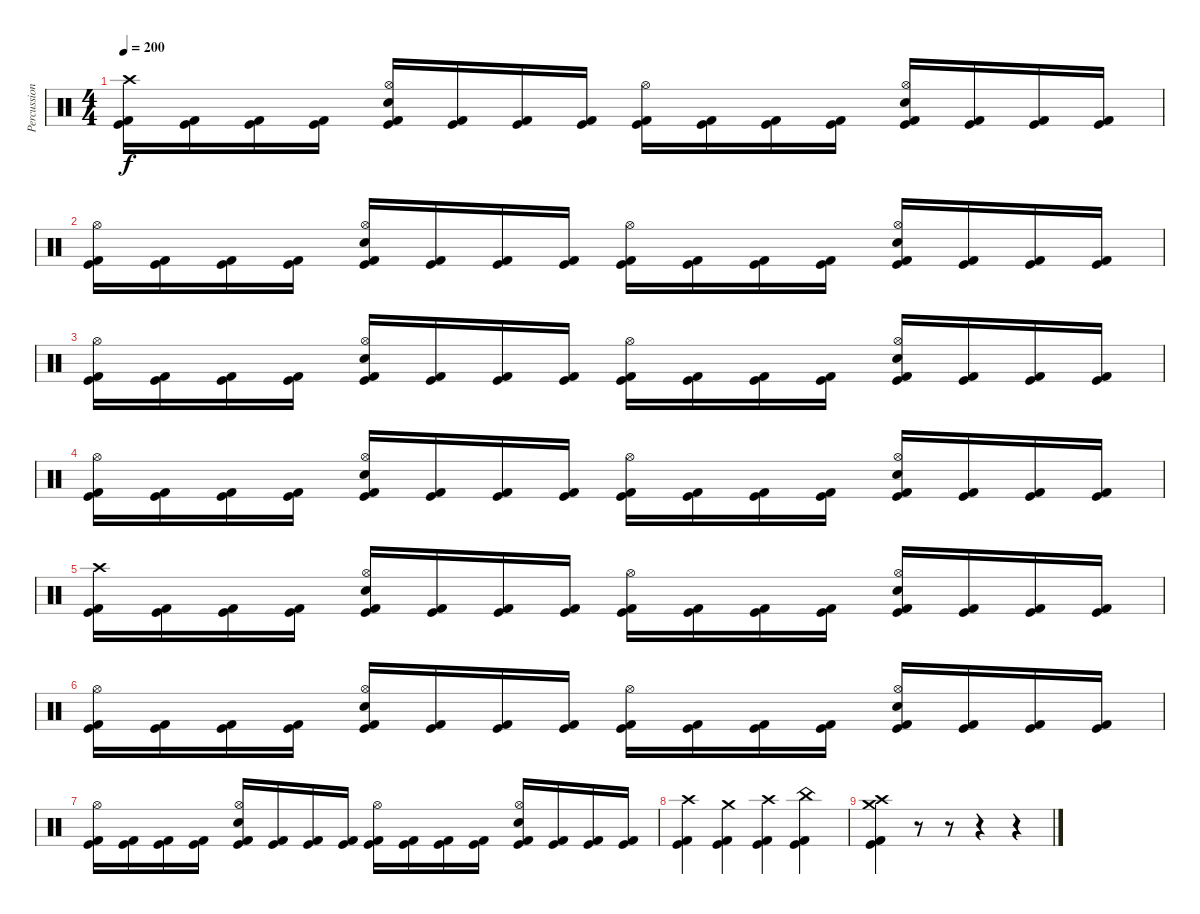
\track ("Percussion" "Percussion") {instrument percussion}
\staff {score}
\articulation defaults
\ts (4 4)
\tempo 200
\clef neutral
\ks c
("Crash high (hit)" "Kick (hit)" "Kick (hit) 2").16{dy f} ("Kick (hit)" "Kick (hit) 2").16 ("Kick (hit)" "Kick (hit) 2").16 ("Kick (hit)" "Kick (hit) 2").16 ("Hi-Hat (open)" "Electric Snare (hit)" "Kick (hit)" "Kick (hit) 2").16 ("Kick (hit)" "Kick (hit) 2").16 ("Kick (hit)" "Kick (hit) 2").16 ("Kick (hit)" "Kick (hit) 2").16 ("Hi-Hat (open)" "Kick (hit)" "Kick (hit) 2").16 ("Kick (hit)" "Kick (hit) 2").16 ("Kick (hit)" "Kick (hit) 2").16 ("Kick (hit)" "Kick (hit) 2").16 ("Hi-Hat (open)" "Electric Snare (hit)" "Kick (hit)" "Kick (hit) 2").16 ("Kick (hit)" "Kick (hit) 2").16 ("Kick (hit)" "Kick (hit) 2").16 ("Kick (hit)" "Kick (hit) 2").16 |
("Hi-Hat (open)" "Kick (hit)" "Kick (hit) 2").16 ("Kick (hit)" "Kick (hit) 2").16 ("Kick (hit)" "Kick (hit) 2").16 ("Kick (hit)" "Kick (hit) 2").16 ("Hi-Hat (open)" "Electric Snare (hit)" "Kick (hit)" "Kick (hit) 2").16 ("Kick (hit)" "Kick (hit) 2").16 ("Kick (hit)" "Kick (hit) 2").16 ("Kick (hit)" "Kick (hit) 2").16 ("Hi-Hat (open)" "Kick (hit)" "Kick (hit) 2").16 ("Kick (hit)" "Kick (hit) 2").16 ("Kick (hit)" "Kick (hit) 2").16 ("Kick (hit)" "Kick (hit) 2").16 ("Hi-Hat (open)" "Electric Snare (hit)" "Kick (hit)" "Kick (hit) 2").16 ("Kick (hit)" "Kick (hit) 2").16 ("Kick (hit)" "Kick (hit) 2").16 ("Kick (hit)" "Kick (hit) 2").16 |
("Hi-Hat (open)" "Kick (hit)" "Kick (hit) 2").16 ("Kick (hit)" "Kick (hit) 2").16 ("Kick (hit)" "Kick (hit) 2").16 ("Kick (hit)" "Kick (hit) 2").16 ("Hi-Hat (open)" "Electric Snare (hit)" "Kick (hit)" "Kick (hit) 2").16 ("Kick (hit)" "Kick (hit) 2").16 ("Kick (hit)" "Kick (hit) 2").16 ("Kick (hit)" "Kick (hit) 2").16 ("Hi-Hat (open)" "Kick (hit)" "Kick (hit) 2").16 ("Kick (hit)" "Kick (hit) 2").16 ("Kick (hit)" "Kick (hit) 2").16 ("Kick (hit)" "Kick (hit) 2").16 ("Hi-Hat (open)" "Electric Snare (hit)" "Kick (hit)" "Kick (hit) 2").16 ("Kick (hit)" "Kick (hit) 2").16 ("Kick (hit)" "Kick (hit) 2").16 ("Kick (hit)" "Kick (hit) 2").16 |
("Hi-Hat (open)" "Kick (hit)" "Kick (hit) 2").16 ("Kick (hit)" "Kick (hit) 2").16 ("Kick (hit)" "Kick (hit) 2").16 ("Kick (hit)" "Kick (hit) 2").16 ("Hi-Hat (open)" "Electric Snare (hit)" "Kick (hit)" "Kick (hit) 2").16 ("Kick (hit)" "Kick (hit) 2").16 ("Kick (hit)" "Kick (hit) 2").16 ("Kick (hit)" "Kick (hit) 2").16 ("Hi-Hat (open)" "Kick (hit)" "Kick (hit) 2").16 ("Kick (hit)" "Kick (hit) 2").16 ("Kick (hit)" "Kick (hit) 2").16 ("Kick (hit)" "Kick (hit) 2").16 ("Hi-Hat (open)" "Electric Snare (hit)" "Kick (hit)" "Kick (hit) 2").16 ("Kick (hit)" "Kick (hit) 2").16 ("Kick (hit)" "Kick (hit) 2").16 ("Kick (hit)" "Kick (hit) 2").16 |
("Crash high (hit)" "Kick (hit)" "Kick (hit) 2").16 ("Kick (hit)" "Kick (hit) 2").16 ("Kick (hit)" "Kick (hit) 2").16 ("Kick (hit)" "Kick (hit) 2").16 ("Hi-Hat (open)" "Electric Snare (hit)" "Kick (hit)" "Kick (hit) 2").16 ("Kick (hit)" "Kick (hit) 2").16 ("Kick (hit)" "Kick (hit) 2").16 ("Kick (hit)" "Kick (hit) 2").16 ("Hi-Hat (open)" "Kick (hit)" "Kick (hit) 2").16 ("Kick (hit)" "Kick (hit) 2").16 ("Kick (hit)" "Kick (hit) 2").16 ("Kick (hit)" "Kick (hit) 2").16 ("Hi-Hat (open)" "Electric Snare (hit)" "Kick (hit)" "Kick (hit) 2").16 ("Kick (hit)" "Kick (hit) 2").16 ("Kick (hit)" "Kick (hit) 2").16 ("Kick (hit)" "Kick (hit) 2").16 |
("Hi-Hat (open)" "Kick (hit)" "Kick (hit) 2").16 ("Kick (hit)" "Kick (hit) 2").16 ("Kick (hit)" "Kick (hit) 2").16 ("Kick (hit)" "Kick (hit) 2").16 ("Hi-Hat (open)" "Electric Snare (hit)" "Kick (hit)" "Kick (hit) 2").16 ("Kick (hit)" "Kick (hit) 2").16 ("Kick (hit)" "Kick (hit) 2").16 ("Kick (hit)" "Kick (hit) 2").16 ("Hi-Hat (open)" "Kick (hit)" "Kick (hit) 2").16 ("Kick (hit)" "Kick (hit) 2").16 ("Kick (hit)" "Kick (hit) 2").16 ("Kick (hit)" "Kick (hit) 2").16 ("Hi-Hat (open)" "Electric Snare (hit)" "Kick (hit)" "Kick (hit) 2").16 ("Kick (hit)" "Kick (hit) 2").16 ("Kick (hit)" "Kick (hit) 2").16 ("Kick (hit)" "Kick (hit) 2").16 |
("Hi-Hat (open)" "Kick (hit)" "Kick (hit) 2").16 ("Kick (hit)" "Kick (hit) 2").16 ("Kick (hit)" "Kick (hit) 2").16 ("Kick (hit)" "Kick (hit) 2").16 ("Hi-Hat (open)" "Electric Snare (hit)" "Kick (hit)" "Kick (hit) 2").16 ("Kick (hit)" "Kick (hit) 2").16 ("Kick (hit)" "Kick (hit) 2").16 ("Kick (hit)" "Kick (hit) 2").16 ("Hi-Hat (open)" "Kick (hit)" "Kick (hit) 2").16 ("Kick (hit)" "Kick (hit) 2").16 ("Kick (hit)" "Kick (hit) 2").16 ("Kick (hit)" "Kick (hit) 2").16 ("Hi-Hat (open)" "Electric Snare (hit)" "Kick (hit)" "Kick (hit) 2").16 ("Kick (hit)" "Kick (hit) 2").16 ("Kick (hit)" "Kick (hit) 2").16 ("Kick (hit)" "Kick (hit) 2").16 |
("Crash high (hit)" "Kick (hit)" "Kick (hit) 2").4 ("Crash medium (hit)" "Kick (hit)" "Kick (hit) 2").4 ("Crash high (hit)" "Kick (hit)" "Kick (hit) 2").4 ("China (hit)" "Kick (hit)" "Kick (hit) 2").4 |
("Crash medium (hit)" "Crash high (hit)" "Kick (hit)" "Kick (hit) 2").4 r.8 r.8 r.4 r.4
